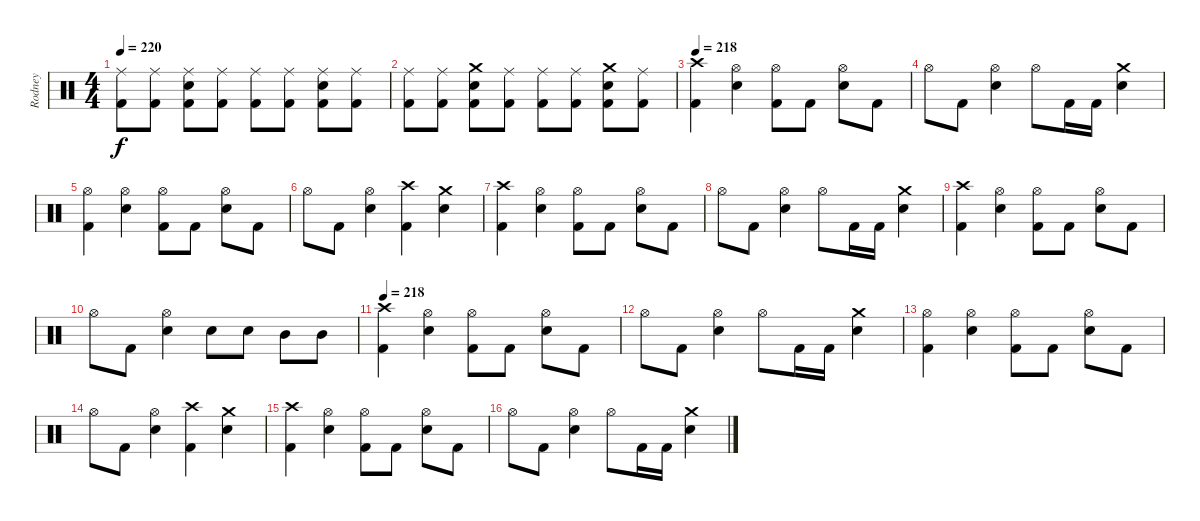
\track ("Rodney" "Rodney") {instrument percussion}
\staff {score}
\articulation defaults
\ts (4 4)
\tempo 220
\clef neutral
\ks c
("Ride (middle)" "Kick (hit) 2").8{dy f} ("Ride (middle)" "Kick (hit) 2").8 ("Ride (middle)" "Snare (hit) 2" "Kick (hit) 2").8 ("Ride (middle)" "Kick (hit) 2").8 ("Ride (middle)" "Kick (hit) 2").8 ("Ride (middle)" "Kick (hit) 2").8 ("Ride (middle)" "Snare (hit) 2" "Kick (hit) 2").8 ("Ride (middle)" "Kick (hit) 2").8 |
("Ride (middle)" "Kick (hit) 2").8 ("Ride (middle)" "Kick (hit) 2").8 ("Crash medium (hit)" "Snare (hit) 2" "Kick (hit) 2").8 ("Ride (middle)" "Kick (hit) 2").8 ("Ride (middle)" "Kick (hit) 2").8 ("Ride (middle)" "Kick (hit) 2").8 ("Crash medium (hit)" "Snare (hit) 2" "Kick (hit) 2").8 ("Ride (middle)" "Kick (hit) 2").8 |
\tempo 218
("Crash high (hit)" "Kick (hit) 2").4 ("Hi-Hat (open)" "Snare (hit) 2").4 ("Hi-Hat (open)" "Kick (hit) 2").8 "Kick (hit) 2".8 ("Hi-Hat (open)" "Snare (hit) 2").8 "Kick (hit) 2".8 |
"Hi-Hat (open)".8 "Kick (hit) 2".8 ("Hi-Hat (open)" "Snare (hit) 2").4 "Hi-Hat (open)".8 "Kick (hit) 2".16 "Kick (hit) 2".16 ("Crash medium (hit)" "Snare (hit) 2").4 |
("Hi-Hat (open)" "Kick (hit) 2").4 ("Hi-Hat (open)" "Snare (hit) 2").4 ("Hi-Hat (open)" "Kick (hit) 2").8 "Kick (hit) 2".8 ("Hi-Hat (open)" "Snare (hit) 2").8 "Kick (hit) 2".8 |
"Hi-Hat (open)".8 "Kick (hit) 2".8 ("Hi-Hat (open)" "Snare (hit) 2").4 ("Crash high (hit)" "Kick (hit) 2").4 ("Crash medium (hit)" "Snare (hit) 2").4 |
("Crash high (hit)" "Kick (hit) 2").4 ("Hi-Hat (open)" "Snare (hit) 2").4 ("Hi-Hat (open)" "Kick (hit) 2").8 "Kick (hit) 2".8 ("Hi-Hat (open)" "Snare (hit) 2").8 "Kick (hit) 2".8 |
"Hi-Hat (open)".8 "Kick (hit) 2".8 ("Hi-Hat (open)" "Snare (hit) 2").4 "Hi-Hat (open)".8 "Kick (hit) 2".16 "Kick (hit) 2".16 ("Crash medium (hit)" "Snare (hit) 2").4 |
("Crash high (hit)" "Kick (hit) 2").4 ("Hi-Hat (open)" "Snare (hit) 2").4 ("Hi-Hat (open)" "Kick (hit) 2").8 "Kick (hit) 2".8 ("Hi-Hat (open)" "Snare (hit) 2").8 "Kick (hit) 2".8 |
"Hi-Hat (open)".8 "Kick (hit) 2".8 ("Hi-Hat (open)" "Snare (hit) 2").4 "Snare (hit) 2".8 "Snare (hit) 2".8 "Mid Tom (hit)".8 "Mid Tom (hit)".8 |
\tempo 218
("Crash high (hit)" "Kick (hit) 2").4 ("Hi-Hat (open)" "Snare (hit) 2").4 ("Hi-Hat (open)" "Kick (hit) 2").8 "Kick (hit) 2".8 ("Hi-Hat (open)" "Snare (hit) 2").8 "Kick (hit) 2".8 |
"Hi-Hat (open)".8 "Kick (hit) 2".8 ("Hi-Hat (open)" "Snare (hit) 2").4 "Hi-Hat (open)".8 "Kick (hit) 2".16 "Kick (hit) 2".16 ("Crash medium (hit)" "Snare (hit) 2").4 |
("Hi-Hat (open)" "Kick (hit) 2").4 ("Hi-Hat (open)" "Snare (hit) 2").4 ("Hi-Hat (open)" "Kick (hit) 2").8 "Kick (hit) 2".8 ("Hi-Hat (open)" "Snare (hit) 2").8 "Kick (hit) 2".8 |
"Hi-Hat (open)".8 "Kick (hit) 2".8 ("Hi-Hat (open)" "Snare (hit) 2").4 ("Crash high (hit)" "Kick (hit) 2").4 ("Crash medium (hit)" "Snare (hit) 2").4 |
("Crash high (hit)" "Kick (hit) 2").4 ("Hi-Hat (open)" "Snare (hit) 2").4 ("Hi-Hat (open)" "Kick (hit) 2").8 "Kick (hit) 2".8 ("Hi-Hat (open)" "Snare (hit) 2").8 "Kick (hit) 2".8 |
"Hi-Hat (open)".8 "Kick (hit) 2".8 ("Hi-Hat (open)" "Snare (hit) 2").4 "Hi-Hat (open)".8 "Kick (hit) 2".16 "Kick (hit) 2".16 ("Crash medium (hit)" "Snare (hit) 2").4
